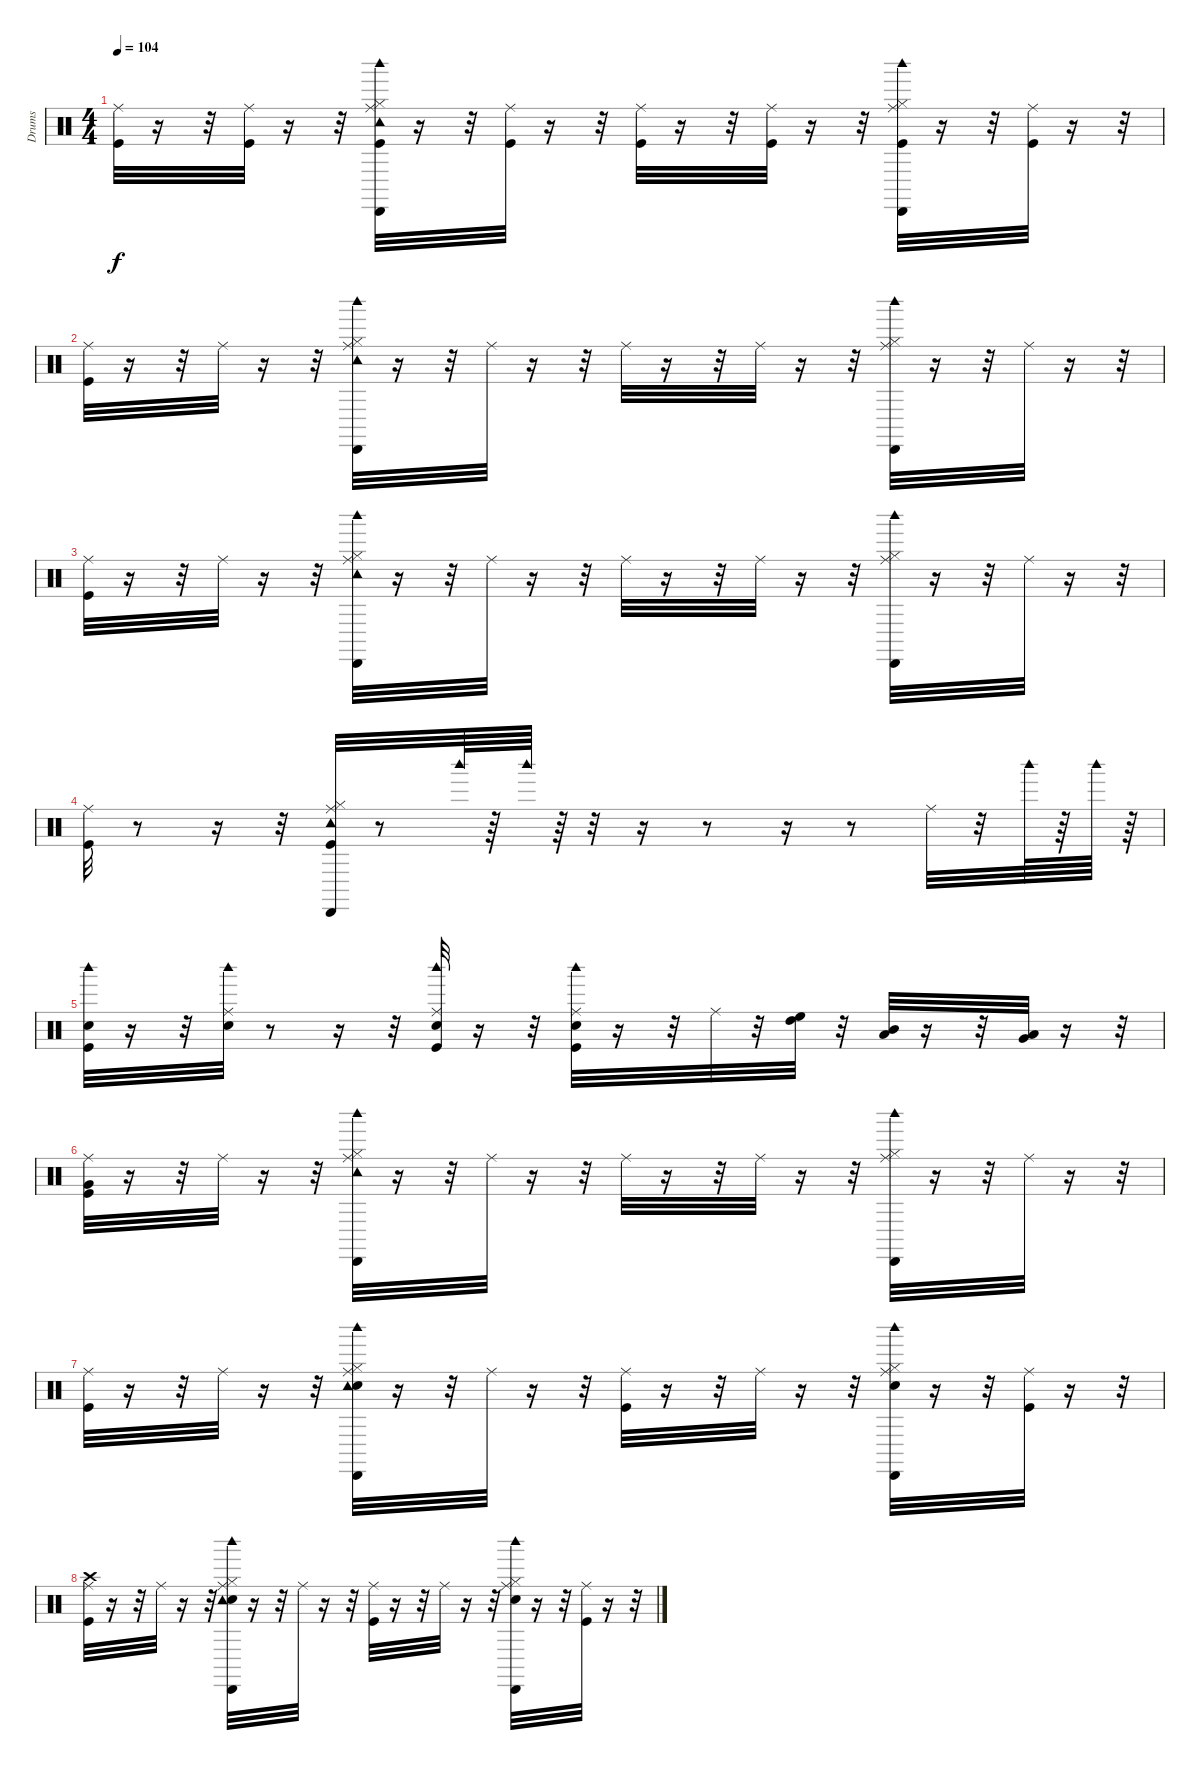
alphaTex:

\track ("Drums" "Drums") {instrument percussion}
\staff {score}
\articulation defaults
\ts (4 4)
\tempo 104
\clef neutral
\ks c
("Kick (hit)" "Ride (middle)").32{dy f} r.16 r.32 ("Kick (hit)" "Ride (middle)").32 r.16 r.32 ("Kick (hit)" "Hi-Hat (closed)" "Ride (middle)" "Tambourine (hit)" "Cabasa (hit)" "Woodblock high (hit)").32 r.16 r.32 ("Kick (hit)" "Ride (middle)").32 r.16 r.32 ("Kick (hit)" "Ride (middle)").32 r.16 r.32 ("Kick (hit)" "Ride (middle)").32 r.16 r.32 ("Kick (hit)" "Hi-Hat (closed)" "Ride (middle)" "Cabasa (hit)" "Woodblock high (hit)").32 r.16 r.32 ("Kick (hit)" "Ride (middle)").32 r.16 r.32 |
("Kick (hit)" "Ride (middle)").32 r.16 r.32 "Ride (middle)".32 r.16 r.32 ("Hi-Hat (closed)" "Ride (middle)" "Tambourine (hit)" "Cabasa (hit)" "Woodblock high (hit)").32 r.16 r.32 "Ride (middle)".32 r.16 r.32 "Ride (middle)".32 r.16 r.32 "Ride (middle)".32 r.16 r.32 ("Hi-Hat (closed)" "Ride (middle)" "Cabasa (hit)" "Woodblock high (hit)").32 r.16 r.32 "Ride (middle)".32 r.16 r.32 |
("Kick (hit)" "Ride (middle)").32 r.16 r.32 "Ride (middle)".32 r.16 r.32 ("Hi-Hat (closed)" "Ride (middle)" "Tambourine (hit)" "Cabasa (hit)" "Woodblock high (hit)").32 r.16 r.32 "Ride (middle)".32 r.16 r.32 "Ride (middle)".32 r.16 r.32 "Ride (middle)".32 r.16 r.32 ("Hi-Hat (closed)" "Ride (middle)" "Cabasa (hit)" "Woodblock high (hit)").32 r.16 r.32 "Ride (middle)".32 r.16 r.32 |
("Kick (hit)" "Ride (middle)").32 r.8 r.16 r.32 ("Kick (hit)" "Hi-Hat (closed)" "Ride (middle)" "Tambourine (hit)" "Cabasa (hit)").32 r.8 "Woodblock high (hit)".64 r.64 "Woodblock high (hit)".64 r.64 r.32 r.16 r.8 r.16 r.8 "Ride (middle)".32 r.32 "Woodblock high (hit)".64 r.64 "Woodblock high (hit)".64 r.64 |
("Kick (hit)" "Snare (hit) 2" "Woodblock high (hit)").32 r.16 r.32 ("Snare (hit) 2" "Ride (middle)" "Woodblock high (hit)").32 r.8 r.16 r.32 ("Kick (hit)" "Snare (hit) 2" "Ride (middle)" "Woodblock high (hit)").32 r.16 r.32 ("Kick (hit)" "Snare (hit) 2" "Ride (middle)" "Woodblock high (hit)").32 r.16 r.32 "Ride (middle)".32 r.32 ("High Tom (hit)" "High Floor Tom (hit)").32 r.32 ("Low Tom (hit)" "Mid Tom (hit)").32 r.16 r.32 ("Low Floor Tom (hit)" "Very Low Tom (hit)").32 r.16 r.32 |
("Kick (hit)" "Very Low Tom (hit)" "Ride (middle)").32 r.16 r.32 "Ride (middle)".32 r.16 r.32 ("Hi-Hat (closed)" "Ride (middle)" "Tambourine (hit)" "Cabasa (hit)" "Woodblock high (hit)").32 r.16 r.32 "Ride (middle)".32 r.16 r.32 "Ride (middle)".32 r.16 r.32 "Ride (middle)".32 r.16 r.32 ("Hi-Hat (closed)" "Ride (middle)" "Cabasa (hit)" "Woodblock high (hit)").32 r.16 r.32 "Ride (middle)".32 r.16 r.32 |
("Kick (hit)" "Ride (middle)").32 r.16 r.32 "Ride (middle)".32 r.16 r.32 ("Snare (hit) 2" "Hi-Hat (closed)" "Ride (middle)" "Tambourine (hit)" "Cabasa (hit)" "Woodblock high (hit)").32 r.16 r.32 "Ride (middle)".32 r.16 r.32 ("Kick (hit)" "Ride (middle)").32 r.16 r.32 "Ride (middle)".32 r.16 r.32 ("Snare (hit) 2" "Hi-Hat (closed)" "Ride (middle)" "Cabasa (hit)" "Woodblock high (hit)").32 r.16 r.32 ("Kick (hit)" "Ride (middle)").32 r.16 r.32 |
("Kick (hit)" "Crash high (hit)" "Ride (middle)").32 r.16 r.32 "Ride (middle)".32 r.16 r.32 ("Snare (hit) 2" "Hi-Hat (closed)" "Ride (middle)" "Tambourine (hit)" "Cabasa (hit)" "Woodblock high (hit)").32 r.16 r.32 "Ride (middle)".32 r.16 r.32 ("Kick (hit)" "Ride (middle)").32 r.16 r.32 "Ride (middle)".32 r.16 r.32 ("Snare (hit) 2" "Hi-Hat (closed)" "Ride (middle)" "Cabasa (hit)" "Woodblock high (hit)").32 r.16 r.32 ("Kick (hit)" "Ride (middle)").32 r.16 r.32
